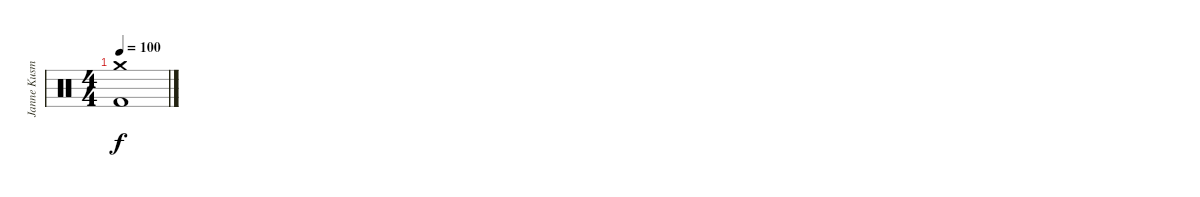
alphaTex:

\track ("Janne Kusmin " "Janne Kusm") {instrument percussion}
\staff {score}
\articulation defaults
\ts (4 4)
\tempo 100
\clef neutral
\ks c
("Crash medium (hit)" "Kick (hit) 2").1{dy f}
